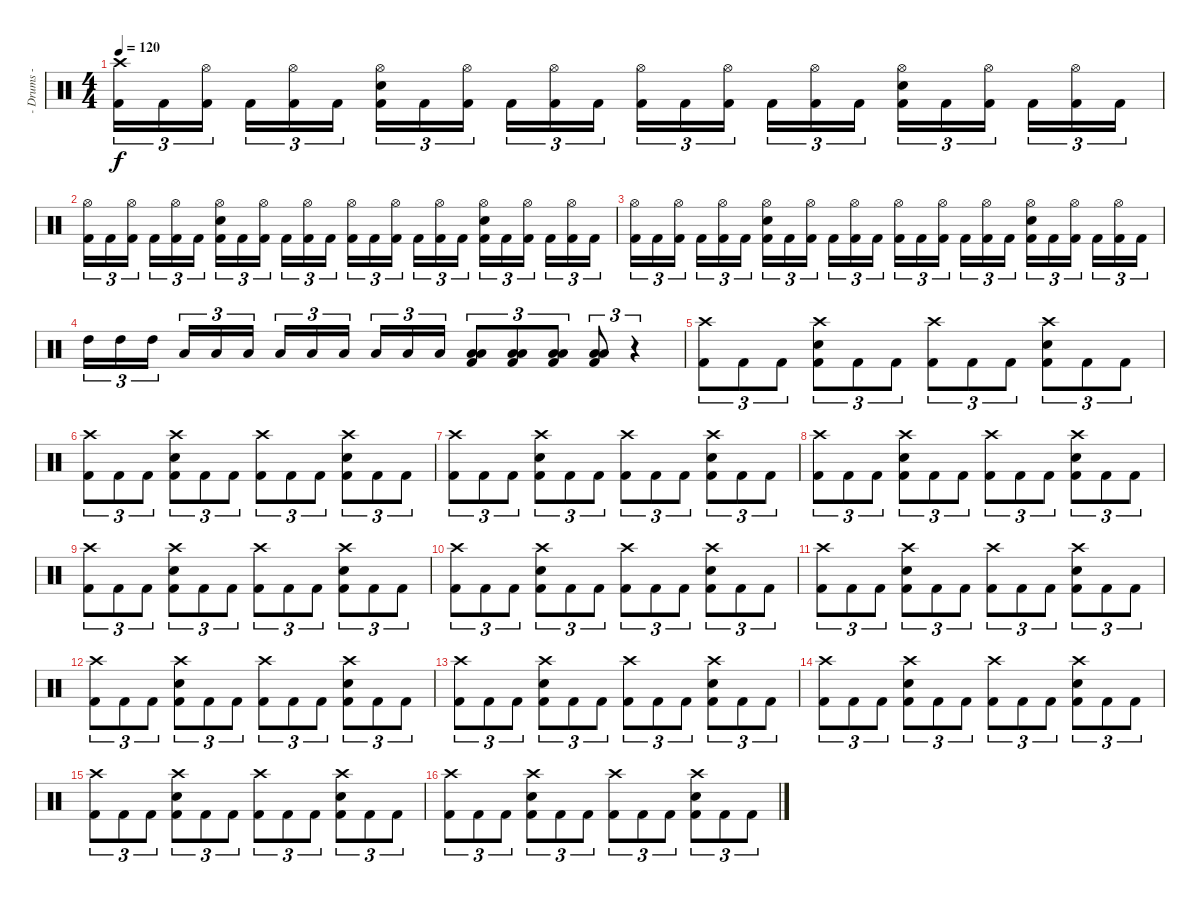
\track ("- Drums -" "- Drums -") {instrument percussion}
\staff {score}
\articulation defaults
\ts (4 4)
\tempo 120
\clef neutral
\ks c
("Crash high (hit)" "Kick (hit) 2").16{tu (3 2) dy f} "Kick (hit) 2".16{tu (3 2)} ("Hi-Hat (open)" "Kick (hit) 2").16{tu (3 2)} "Kick (hit) 2".16{tu (3 2)} ("Hi-Hat (open)" "Kick (hit) 2").16{tu (3 2)} "Kick (hit) 2".16{tu (3 2)} ("Hi-Hat (open)" "Electric Snare (hit)" "Kick (hit) 2").16{tu (3 2)} "Kick (hit) 2".16{tu (3 2)} ("Hi-Hat (open)" "Kick (hit) 2").16{tu (3 2)} "Kick (hit) 2".16{tu (3 2)} ("Hi-Hat (open)" "Kick (hit) 2").16{tu (3 2)} "Kick (hit) 2".16{tu (3 2)} ("Hi-Hat (open)" "Kick (hit) 2").16{tu (3 2)} "Kick (hit) 2".16{tu (3 2)} ("Hi-Hat (open)" "Kick (hit) 2").16{tu (3 2)} "Kick (hit) 2".16{tu (3 2)} ("Hi-Hat (open)" "Kick (hit) 2").16{tu (3 2)} "Kick (hit) 2".16{tu (3 2)} ("Hi-Hat (open)" "Electric Snare (hit)" "Kick (hit) 2").16{tu (3 2)} "Kick (hit) 2".16{tu (3 2)} ("Hi-Hat (open)" "Kick (hit) 2").16{tu (3 2)} "Kick (hit) 2".16{tu (3 2)} ("Hi-Hat (open)" "Kick (hit) 2").16{tu (3 2)} "Kick (hit) 2".16{tu (3 2)} |
("Hi-Hat (open)" "Kick (hit) 2").16{tu (3 2)} "Kick (hit) 2".16{tu (3 2)} ("Hi-Hat (open)" "Kick (hit) 2").16{tu (3 2)} "Kick (hit) 2".16{tu (3 2)} ("Hi-Hat (open)" "Kick (hit) 2").16{tu (3 2)} "Kick (hit) 2".16{tu (3 2)} ("Hi-Hat (open)" "Electric Snare (hit)" "Kick (hit) 2").16{tu (3 2)} "Kick (hit) 2".16{tu (3 2)} ("Hi-Hat (open)" "Kick (hit) 2").16{tu (3 2)} "Kick (hit) 2".16{tu (3 2)} ("Hi-Hat (open)" "Kick (hit) 2").16{tu (3 2)} "Kick (hit) 2".16{tu (3 2)} ("Hi-Hat (open)" "Kick (hit) 2").16{tu (3 2)} "Kick (hit) 2".16{tu (3 2)} ("Hi-Hat (open)" "Kick (hit) 2").16{tu (3 2)} "Kick (hit) 2".16{tu (3 2)} ("Hi-Hat (open)" "Kick (hit) 2").16{tu (3 2)} "Kick (hit) 2".16{tu (3 2)} ("Hi-Hat (open)" "Electric Snare (hit)" "Kick (hit) 2").16{tu (3 2)} "Kick (hit) 2".16{tu (3 2)} ("Hi-Hat (open)" "Kick (hit) 2").16{tu (3 2)} "Kick (hit) 2".16{tu (3 2)} ("Hi-Hat (open)" "Kick (hit) 2").16{tu (3 2)} "Kick (hit) 2".16{tu (3 2)} |
("Hi-Hat (open)" "Kick (hit) 2").16{tu (3 2)} "Kick (hit) 2".16{tu (3 2)} ("Hi-Hat (open)" "Kick (hit) 2").16{tu (3 2)} "Kick (hit) 2".16{tu (3 2)} ("Hi-Hat (open)" "Kick (hit) 2").16{tu (3 2)} "Kick (hit) 2".16{tu (3 2)} ("Hi-Hat (open)" "Electric Snare (hit)" "Kick (hit) 2").16{tu (3 2)} "Kick (hit) 2".16{tu (3 2)} ("Hi-Hat (open)" "Kick (hit) 2").16{tu (3 2)} "Kick (hit) 2".16{tu (3 2)} ("Hi-Hat (open)" "Kick (hit) 2").16{tu (3 2)} "Kick (hit) 2".16{tu (3 2)} ("Hi-Hat (open)" "Kick (hit) 2").16{tu (3 2)} "Kick (hit) 2".16{tu (3 2)} ("Hi-Hat (open)" "Kick (hit) 2").16{tu (3 2)} "Kick (hit) 2".16{tu (3 2)} ("Hi-Hat (open)" "Kick (hit) 2").16{tu (3 2)} "Kick (hit) 2".16{tu (3 2)} ("Hi-Hat (open)" "Electric Snare (hit)" "Kick (hit) 2").16{tu (3 2)} "Kick (hit) 2".16{tu (3 2)} ("Hi-Hat (open)" "Kick (hit) 2").16{tu (3 2)} "Kick (hit) 2".16{tu (3 2)} ("Hi-Hat (open)" "Kick (hit) 2").16{tu (3 2)} "Kick (hit) 2".16{tu (3 2)} |
"High Tom (hit)".16{tu (3 2)} "High Tom (hit)".16{tu (3 2)} "High Tom (hit)".16{tu (3 2)} "Low Tom (hit)".16{tu (3 2)} "Low Tom (hit)".16{tu (3 2)} "Low Tom (hit)".16{tu (3 2)} "Low Floor Tom (hit)".16{tu (3 2)} "Low Floor Tom (hit)".16{tu (3 2)} "Low Floor Tom (hit)".16{tu (3 2)} "Low Floor Tom (hit)".16{tu (3 2)} "Low Floor Tom (hit)".16{tu (3 2)} "Low Floor Tom (hit)".16{tu (3 2)} ("Low Tom (hit)" "Low Floor Tom (hit)" "Kick (hit) 2").8{tu (3 2)} ("Low Tom (hit)" "Low Floor Tom (hit)" "Kick (hit) 2").8{tu (3 2)} ("Low Tom (hit)" "Low Floor Tom (hit)" "Kick (hit) 2").8{tu (3 2)} ("Low Tom (hit)" "Low Floor Tom (hit)" "Kick (hit) 2").8{tu (3 2)} r.4{tu (3 2)} |
("Crash high (hit)" "Kick (hit) 2").8{tu (3 2)} "Kick (hit) 2".8{tu (3 2)} "Kick (hit) 2".8{tu (3 2)} ("Crash high (hit)" "Electric Snare (hit)" "Kick (hit) 2").8{tu (3 2)} "Kick (hit) 2".8{tu (3 2)} "Kick (hit) 2".8{tu (3 2)} ("Crash high (hit)" "Kick (hit) 2").8{tu (3 2)} "Kick (hit) 2".8{tu (3 2)} "Kick (hit) 2".8{tu (3 2)} ("Crash high (hit)" "Electric Snare (hit)" "Kick (hit) 2").8{tu (3 2)} "Kick (hit) 2".8{tu (3 2)} "Kick (hit) 2".8{tu (3 2)} |
("Crash high (hit)" "Kick (hit) 2").8{tu (3 2)} "Kick (hit) 2".8{tu (3 2)} "Kick (hit) 2".8{tu (3 2)} ("Crash high (hit)" "Electric Snare (hit)" "Kick (hit) 2").8{tu (3 2)} "Kick (hit) 2".8{tu (3 2)} "Kick (hit) 2".8{tu (3 2)} ("Crash high (hit)" "Kick (hit) 2").8{tu (3 2)} "Kick (hit) 2".8{tu (3 2)} "Kick (hit) 2".8{tu (3 2)} ("Crash high (hit)" "Electric Snare (hit)" "Kick (hit) 2").8{tu (3 2)} "Kick (hit) 2".8{tu (3 2)} "Kick (hit) 2".8{tu (3 2)} |
("Crash high (hit)" "Kick (hit) 2").8{tu (3 2)} "Kick (hit) 2".8{tu (3 2)} "Kick (hit) 2".8{tu (3 2)} ("Crash high (hit)" "Electric Snare (hit)" "Kick (hit) 2").8{tu (3 2)} "Kick (hit) 2".8{tu (3 2)} "Kick (hit) 2".8{tu (3 2)} ("Crash high (hit)" "Kick (hit) 2").8{tu (3 2)} "Kick (hit) 2".8{tu (3 2)} "Kick (hit) 2".8{tu (3 2)} ("Crash high (hit)" "Electric Snare (hit)" "Kick (hit) 2").8{tu (3 2)} "Kick (hit) 2".8{tu (3 2)} "Kick (hit) 2".8{tu (3 2)} |
("Crash high (hit)" "Kick (hit) 2").8{tu (3 2)} "Kick (hit) 2".8{tu (3 2)} "Kick (hit) 2".8{tu (3 2)} ("Crash high (hit)" "Electric Snare (hit)" "Kick (hit) 2").8{tu (3 2)} "Kick (hit) 2".8{tu (3 2)} "Kick (hit) 2".8{tu (3 2)} ("Crash high (hit)" "Kick (hit) 2").8{tu (3 2)} "Kick (hit) 2".8{tu (3 2)} "Kick (hit) 2".8{tu (3 2)} ("Crash high (hit)" "Electric Snare (hit)" "Kick (hit) 2").8{tu (3 2)} "Kick (hit) 2".8{tu (3 2)} "Kick (hit) 2".8{tu (3 2)} |
("Crash high (hit)" "Kick (hit) 2").8{tu (3 2)} "Kick (hit) 2".8{tu (3 2)} "Kick (hit) 2".8{tu (3 2)} ("Crash high (hit)" "Electric Snare (hit)" "Kick (hit) 2").8{tu (3 2)} "Kick (hit) 2".8{tu (3 2)} "Kick (hit) 2".8{tu (3 2)} ("Crash high (hit)" "Kick (hit) 2").8{tu (3 2)} "Kick (hit) 2".8{tu (3 2)} "Kick (hit) 2".8{tu (3 2)} ("Crash high (hit)" "Electric Snare (hit)" "Kick (hit) 2").8{tu (3 2)} "Kick (hit) 2".8{tu (3 2)} "Kick (hit) 2".8{tu (3 2)} |
("Crash high (hit)" "Kick (hit) 2").8{tu (3 2)} "Kick (hit) 2".8{tu (3 2)} "Kick (hit) 2".8{tu (3 2)} ("Crash high (hit)" "Electric Snare (hit)" "Kick (hit) 2").8{tu (3 2)} "Kick (hit) 2".8{tu (3 2)} "Kick (hit) 2".8{tu (3 2)} ("Crash high (hit)" "Kick (hit) 2").8{tu (3 2)} "Kick (hit) 2".8{tu (3 2)} "Kick (hit) 2".8{tu (3 2)} ("Crash high (hit)" "Electric Snare (hit)" "Kick (hit) 2").8{tu (3 2)} "Kick (hit) 2".8{tu (3 2)} "Kick (hit) 2".8{tu (3 2)} |
("Crash high (hit)" "Kick (hit) 2").8{tu (3 2)} "Kick (hit) 2".8{tu (3 2)} "Kick (hit) 2".8{tu (3 2)} ("Crash high (hit)" "Electric Snare (hit)" "Kick (hit) 2").8{tu (3 2)} "Kick (hit) 2".8{tu (3 2)} "Kick (hit) 2".8{tu (3 2)} ("Crash high (hit)" "Kick (hit) 2").8{tu (3 2)} "Kick (hit) 2".8{tu (3 2)} "Kick (hit) 2".8{tu (3 2)} ("Crash high (hit)" "Electric Snare (hit)" "Kick (hit) 2").8{tu (3 2)} "Kick (hit) 2".8{tu (3 2)} "Kick (hit) 2".8{tu (3 2)} |
("Crash high (hit)" "Kick (hit) 2").8{tu (3 2)} "Kick (hit) 2".8{tu (3 2)} "Kick (hit) 2".8{tu (3 2)} ("Crash high (hit)" "Electric Snare (hit)" "Kick (hit) 2").8{tu (3 2)} "Kick (hit) 2".8{tu (3 2)} "Kick (hit) 2".8{tu (3 2)} ("Crash high (hit)" "Kick (hit) 2").8{tu (3 2)} "Kick (hit) 2".8{tu (3 2)} "Kick (hit) 2".8{tu (3 2)} ("Crash high (hit)" "Electric Snare (hit)" "Kick (hit) 2").8{tu (3 2)} "Kick (hit) 2".8{tu (3 2)} "Kick (hit) 2".8{tu (3 2)} |
("Crash high (hit)" "Kick (hit) 2").8{tu (3 2)} "Kick (hit) 2".8{tu (3 2)} "Kick (hit) 2".8{tu (3 2)} ("Crash high (hit)" "Electric Snare (hit)" "Kick (hit) 2").8{tu (3 2)} "Kick (hit) 2".8{tu (3 2)} "Kick (hit) 2".8{tu (3 2)} ("Crash high (hit)" "Kick (hit) 2").8{tu (3 2)} "Kick (hit) 2".8{tu (3 2)} "Kick (hit) 2".8{tu (3 2)} ("Crash high (hit)" "Electric Snare (hit)" "Kick (hit) 2").8{tu (3 2)} "Kick (hit) 2".8{tu (3 2)} "Kick (hit) 2".8{tu (3 2)} |
("Crash high (hit)" "Kick (hit) 2").8{tu (3 2)} "Kick (hit) 2".8{tu (3 2)} "Kick (hit) 2".8{tu (3 2)} ("Crash high (hit)" "Electric Snare (hit)" "Kick (hit) 2").8{tu (3 2)} "Kick (hit) 2".8{tu (3 2)} "Kick (hit) 2".8{tu (3 2)} ("Crash high (hit)" "Kick (hit) 2").8{tu (3 2)} "Kick (hit) 2".8{tu (3 2)} "Kick (hit) 2".8{tu (3 2)} ("Crash high (hit)" "Electric Snare (hit)" "Kick (hit) 2").8{tu (3 2)} "Kick (hit) 2".8{tu (3 2)} "Kick (hit) 2".8{tu (3 2)} |
("Crash high (hit)" "Kick (hit) 2").8{tu (3 2)} "Kick (hit) 2".8{tu (3 2)} "Kick (hit) 2".8{tu (3 2)} ("Crash high (hit)" "Electric Snare (hit)" "Kick (hit) 2").8{tu (3 2)} "Kick (hit) 2".8{tu (3 2)} "Kick (hit) 2".8{tu (3 2)} ("Crash high (hit)" "Kick (hit) 2").8{tu (3 2)} "Kick (hit) 2".8{tu (3 2)} "Kick (hit) 2".8{tu (3 2)} ("Crash high (hit)" "Electric Snare (hit)" "Kick (hit) 2").8{tu (3 2)} "Kick (hit) 2".8{tu (3 2)} "Kick (hit) 2".8{tu (3 2)} |
("Crash high (hit)" "Kick (hit) 2").8{tu (3 2)} "Kick (hit) 2".8{tu (3 2)} "Kick (hit) 2".8{tu (3 2)} ("Crash high (hit)" "Electric Snare (hit)" "Kick (hit) 2").8{tu (3 2)} "Kick (hit) 2".8{tu (3 2)} "Kick (hit) 2".8{tu (3 2)} ("Crash high (hit)" "Kick (hit) 2").8{tu (3 2)} "Kick (hit) 2".8{tu (3 2)} "Kick (hit) 2".8{tu (3 2)} ("Crash high (hit)" "Electric Snare (hit)" "Kick (hit) 2").8{tu (3 2)} "Kick (hit) 2".8{tu (3 2)} "Kick (hit) 2".8{tu (3 2)}
